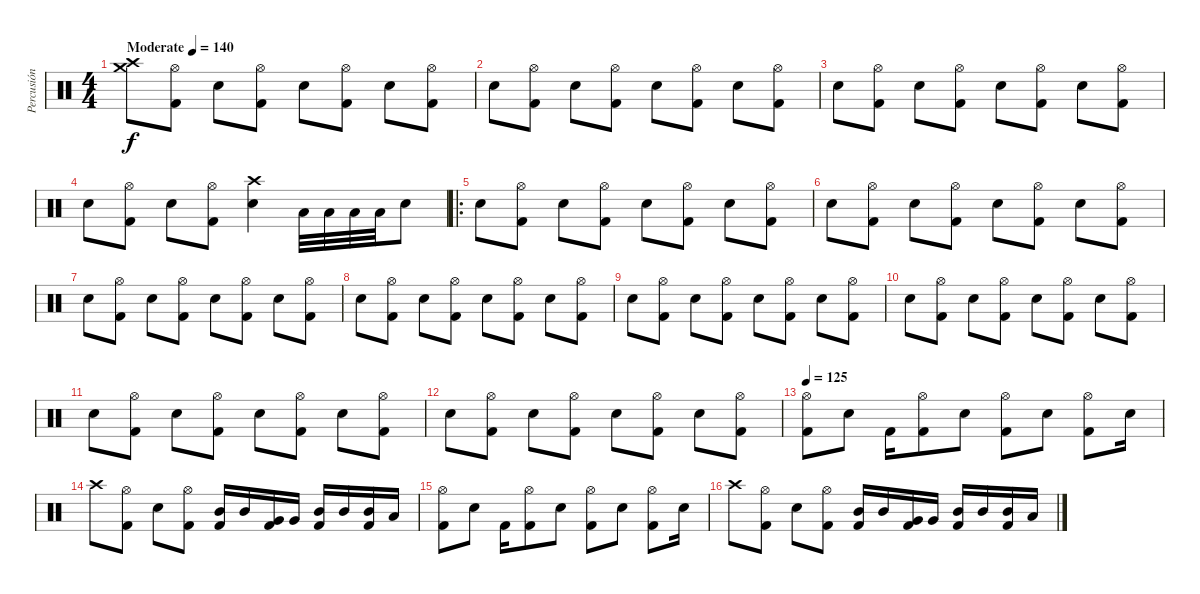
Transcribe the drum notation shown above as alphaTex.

\track ("Percusión" "Percusión") {instrument percussion}
\staff {score}
\articulation defaults
\ts (4 4)
\tempo (140 "Moderate")
\clef neutral
\ks c
("Crash high (hit)" "Crash medium (hit)").8{dy f} ("Hi-Hat (open)" "Kick (hit) 2").8 "Electric Snare (hit)".8 ("Hi-Hat (open)" "Kick (hit) 2").8 "Electric Snare (hit)".8 ("Hi-Hat (open)" "Kick (hit) 2").8 "Electric Snare (hit)".8 ("Hi-Hat (open)" "Kick (hit) 2").8 |
"Electric Snare (hit)".8 ("Hi-Hat (open)" "Kick (hit) 2").8 "Electric Snare (hit)".8 ("Hi-Hat (open)" "Kick (hit) 2").8 "Electric Snare (hit)".8 ("Hi-Hat (open)" "Kick (hit) 2").8 "Electric Snare (hit)".8 ("Hi-Hat (open)" "Kick (hit) 2").8 |
"Electric Snare (hit)".8 ("Hi-Hat (open)" "Kick (hit) 2").8 "Electric Snare (hit)".8 ("Hi-Hat (open)" "Kick (hit) 2").8 "Electric Snare (hit)".8 ("Hi-Hat (open)" "Kick (hit) 2").8 "Electric Snare (hit)".8 ("Hi-Hat (open)" "Kick (hit) 2").8 |
"Electric Snare (hit)".8 ("Hi-Hat (open)" "Kick (hit) 2").8 "Electric Snare (hit)".8 ("Hi-Hat (open)" "Kick (hit) 2").8 ("Crash high (hit)" "Electric Snare (hit)").4 "Low Tom (hit)".32 "Low Tom (hit)".32 "Low Tom (hit)".32 "Low Tom (hit)".32 "Electric Snare (hit)".8 |
\ro "Electric Snare (hit)".8
("Hi-Hat (open)" "Kick (hit) 2").8 "Electric Snare (hit)".8 ("Hi-Hat (open)" "Kick (hit) 2").8 "Electric Snare (hit)".8 ("Hi-Hat (open)" "Kick (hit) 2").8 "Electric Snare (hit)".8 ("Hi-Hat (open)" "Kick (hit) 2").8 |
"Electric Snare (hit)".8 ("Hi-Hat (open)" "Kick (hit) 2").8 "Electric Snare (hit)".8 ("Hi-Hat (open)" "Kick (hit) 2").8 "Electric Snare (hit)".8 ("Hi-Hat (open)" "Kick (hit) 2").8 "Electric Snare (hit)".8 ("Hi-Hat (open)" "Kick (hit) 2").8 |
"Electric Snare (hit)".8 ("Hi-Hat (open)" "Kick (hit) 2").8 "Electric Snare (hit)".8 ("Hi-Hat (open)" "Kick (hit) 2").8 "Electric Snare (hit)".8 ("Hi-Hat (open)" "Kick (hit) 2").8 "Electric Snare (hit)".8 ("Hi-Hat (open)" "Kick (hit) 2").8 |
"Electric Snare (hit)".8 ("Hi-Hat (open)" "Kick (hit) 2").8 "Electric Snare (hit)".8 ("Hi-Hat (open)" "Kick (hit) 2").8 "Electric Snare (hit)".8 ("Hi-Hat (open)" "Kick (hit) 2").8 "Electric Snare (hit)".8 ("Hi-Hat (open)" "Kick (hit) 2").8 |
"Electric Snare (hit)".8 ("Hi-Hat (open)" "Kick (hit) 2").8 "Electric Snare (hit)".8 ("Hi-Hat (open)" "Kick (hit) 2").8 "Electric Snare (hit)".8 ("Hi-Hat (open)" "Kick (hit) 2").8 "Electric Snare (hit)".8 ("Hi-Hat (open)" "Kick (hit) 2").8 |
"Electric Snare (hit)".8 ("Hi-Hat (open)" "Kick (hit) 2").8 "Electric Snare (hit)".8 ("Hi-Hat (open)" "Kick (hit) 2").8 "Electric Snare (hit)".8 ("Hi-Hat (open)" "Kick (hit) 2").8 "Electric Snare (hit)".8 ("Hi-Hat (open)" "Kick (hit) 2").8 |
"Electric Snare (hit)".8 ("Hi-Hat (open)" "Kick (hit) 2").8 "Electric Snare (hit)".8 ("Hi-Hat (open)" "Kick (hit) 2").8 "Electric Snare (hit)".8 ("Hi-Hat (open)" "Kick (hit) 2").8 "Electric Snare (hit)".8 ("Hi-Hat (open)" "Kick (hit) 2").8 |
"Electric Snare (hit)".8 ("Hi-Hat (open)" "Kick (hit) 2").8 "Electric Snare (hit)".8 ("Hi-Hat (open)" "Kick (hit) 2").8 "Electric Snare (hit)".8 ("Hi-Hat (open)" "Kick (hit) 2").8 "Electric Snare (hit)".8 ("Hi-Hat (open)" "Kick (hit) 2").8 |
\tempo 125
("Hi-Hat (open)" "Kick (hit) 2").8 "Electric Snare (hit)".8 "Kick (hit) 2".16 ("Hi-Hat (open)" "Kick (hit) 2").8 "Electric Snare (hit)".8 ("Hi-Hat (open)" "Kick (hit) 2").8 "Electric Snare (hit)".8 ("Hi-Hat (open)" "Kick (hit) 2").8 "Electric Snare (hit)".16 |
"Crash high (hit)".8 ("Hi-Hat (open)" "Kick (hit) 2").8 "Electric Snare (hit)".8 ("Hi-Hat (open)" "Kick (hit) 2").8 ("Mid Tom (hit)" "Kick (hit) 2").16 "Mid Tom (hit)".16 ("Very Low Tom (hit)" "Kick (hit) 2").16 "Very Low Tom (hit)".16 ("Mid Tom (hit)" "Kick (hit) 2").16 "Mid Tom (hit)".16 ("Mid Tom (hit)" "Kick (hit) 2").16 "Low Tom (hit)".16 |
("Hi-Hat (open)" "Kick (hit) 2").8 "Electric Snare (hit)".8 "Kick (hit) 2".16 ("Hi-Hat (open)" "Kick (hit) 2").8 "Electric Snare (hit)".8 ("Hi-Hat (open)" "Kick (hit) 2").8 "Electric Snare (hit)".8 ("Hi-Hat (open)" "Kick (hit) 2").8 "Electric Snare (hit)".16 |
"Crash high (hit)".8 ("Hi-Hat (open)" "Kick (hit) 2").8 "Electric Snare (hit)".8 ("Hi-Hat (open)" "Kick (hit) 2").8 ("Mid Tom (hit)" "Kick (hit) 2").16 "Mid Tom (hit)".16 ("Very Low Tom (hit)" "Kick (hit) 2").16 "Very Low Tom (hit)".16 ("Mid Tom (hit)" "Kick (hit) 2").16 "Mid Tom (hit)".16 ("Mid Tom (hit)" "Kick (hit) 2").16 "Low Tom (hit)".16
